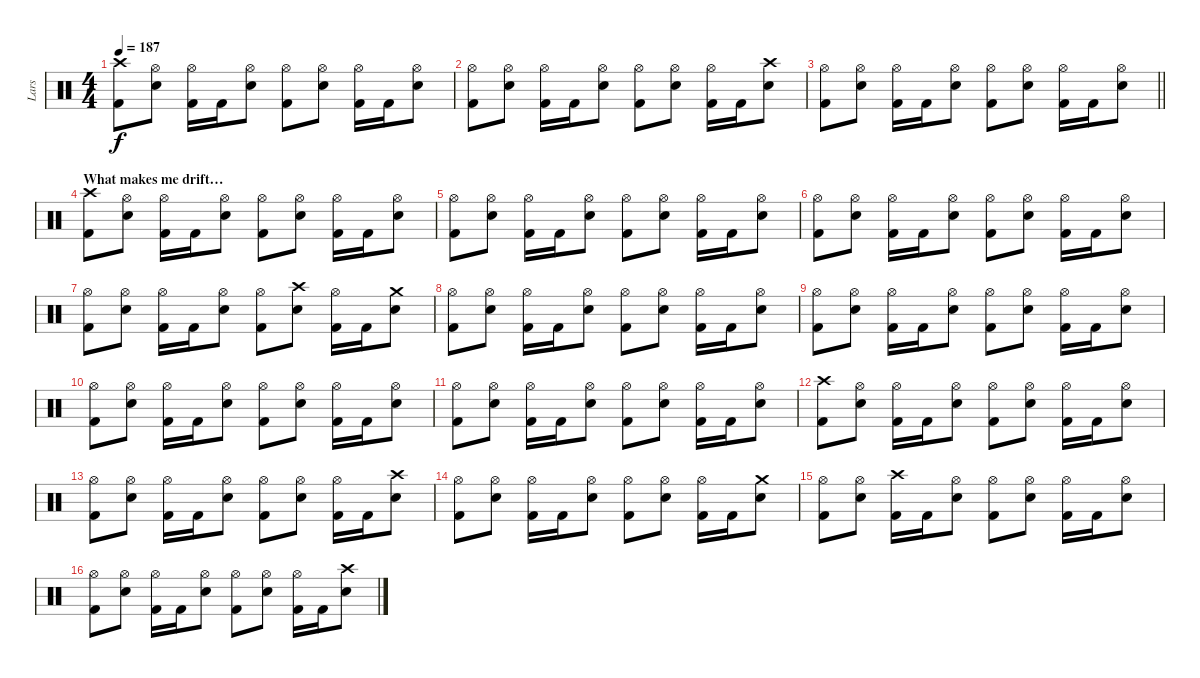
\track ("Lars" "Lars") {instrument percussion}
\staff {score}
\articulation defaults
\ts (4 4)
\tempo 187
\clef neutral
\ks c
("Crash high (hit)" "Kick (hit) 2").8{dy f} ("Hi-Hat (open)" "Snare (hit) 2").8 ("Hi-Hat (open)" "Kick (hit) 2").16 "Kick (hit) 2".16 ("Hi-Hat (open)" "Snare (hit) 2").8 ("Hi-Hat (open)" "Kick (hit) 2").8 ("Hi-Hat (open)" "Snare (hit) 2").8 ("Hi-Hat (open)" "Kick (hit) 2").16 "Kick (hit) 2".16 ("Hi-Hat (open)" "Snare (hit) 2").8 |
("Hi-Hat (open)" "Kick (hit) 2").8 ("Hi-Hat (open)" "Snare (hit) 2").8 ("Hi-Hat (open)" "Kick (hit) 2").16 "Kick (hit) 2".16 ("Hi-Hat (open)" "Snare (hit) 2").8 ("Hi-Hat (open)" "Kick (hit) 2").8 ("Hi-Hat (open)" "Snare (hit) 2").8 ("Hi-Hat (open)" "Kick (hit) 2").16 "Kick (hit) 2".16 ("Crash high (hit)" "Snare (hit) 2").8 |
\barLineRight lightlight
("Hi-Hat (open)" "Kick (hit) 2").8 ("Hi-Hat (open)" "Snare (hit) 2").8 ("Hi-Hat (open)" "Kick (hit) 2").16 "Kick (hit) 2".16 ("Hi-Hat (open)" "Snare (hit) 2").8 ("Hi-Hat (open)" "Kick (hit) 2").8 ("Hi-Hat (open)" "Snare (hit) 2").8 ("Hi-Hat (open)" "Kick (hit) 2").16 "Kick (hit) 2".16 ("Hi-Hat (open)" "Snare (hit) 2").8 |
\section ("" "What makes me drift…")
("Crash high (hit)" "Kick (hit) 2").8 ("Hi-Hat (open)" "Snare (hit) 2").8 ("Hi-Hat (open)" "Kick (hit) 2").16 "Kick (hit) 2".16 ("Hi-Hat (open)" "Snare (hit) 2").8 ("Hi-Hat (open)" "Kick (hit) 2").8 ("Hi-Hat (open)" "Snare (hit) 2").8 ("Hi-Hat (open)" "Kick (hit) 2").16 "Kick (hit) 2".16 ("Hi-Hat (open)" "Snare (hit) 2").8 |
("Hi-Hat (open)" "Kick (hit) 2").8 ("Hi-Hat (open)" "Snare (hit) 2").8 ("Hi-Hat (open)" "Kick (hit) 2").16 "Kick (hit) 2".16 ("Hi-Hat (open)" "Snare (hit) 2").8 ("Hi-Hat (open)" "Kick (hit) 2").8 ("Hi-Hat (open)" "Snare (hit) 2").8 ("Hi-Hat (open)" "Kick (hit) 2").16 "Kick (hit) 2".16 ("Hi-Hat (open)" "Snare (hit) 2").8 |
("Hi-Hat (open)" "Kick (hit) 2").8 ("Hi-Hat (open)" "Snare (hit) 2").8 ("Hi-Hat (open)" "Kick (hit) 2").16 "Kick (hit) 2".16 ("Hi-Hat (open)" "Snare (hit) 2").8 ("Hi-Hat (open)" "Kick (hit) 2").8 ("Hi-Hat (open)" "Snare (hit) 2").8 ("Hi-Hat (open)" "Kick (hit) 2").16 "Kick (hit) 2".16 ("Hi-Hat (open)" "Snare (hit) 2").8 |
("Hi-Hat (open)" "Kick (hit) 2").8 ("Hi-Hat (open)" "Snare (hit) 2").8 ("Hi-Hat (open)" "Kick (hit) 2").16 "Kick (hit) 2".16 ("Hi-Hat (open)" "Snare (hit) 2").8 ("Hi-Hat (open)" "Kick (hit) 2").8 ("Crash high (hit)" "Snare (hit) 2").8 ("Hi-Hat (open)" "Kick (hit) 2").16 "Kick (hit) 2".16 ("Crash medium (hit)" "Snare (hit) 2").8 |
("Hi-Hat (open)" "Kick (hit) 2").8 ("Hi-Hat (open)" "Snare (hit) 2").8 ("Hi-Hat (open)" "Kick (hit) 2").16 "Kick (hit) 2".16 ("Hi-Hat (open)" "Snare (hit) 2").8 ("Hi-Hat (open)" "Kick (hit) 2").8 ("Hi-Hat (open)" "Snare (hit) 2").8 ("Hi-Hat (open)" "Kick (hit) 2").16 "Kick (hit) 2".16 ("Hi-Hat (open)" "Snare (hit) 2").8 |
("Hi-Hat (open)" "Kick (hit) 2").8 ("Hi-Hat (open)" "Snare (hit) 2").8 ("Hi-Hat (open)" "Kick (hit) 2").16 "Kick (hit) 2".16 ("Hi-Hat (open)" "Snare (hit) 2").8 ("Hi-Hat (open)" "Kick (hit) 2").8 ("Hi-Hat (open)" "Snare (hit) 2").8 ("Hi-Hat (open)" "Kick (hit) 2").16 "Kick (hit) 2".16 ("Hi-Hat (open)" "Snare (hit) 2").8 |
("Hi-Hat (open)" "Kick (hit) 2").8 ("Hi-Hat (open)" "Snare (hit) 2").8 ("Hi-Hat (open)" "Kick (hit) 2").16 "Kick (hit) 2".16 ("Hi-Hat (open)" "Snare (hit) 2").8 ("Hi-Hat (open)" "Kick (hit) 2").8 ("Hi-Hat (open)" "Snare (hit) 2").8 ("Hi-Hat (open)" "Kick (hit) 2").16 "Kick (hit) 2".16 ("Hi-Hat (open)" "Snare (hit) 2").8 |
("Hi-Hat (open)" "Kick (hit) 2").8 ("Hi-Hat (open)" "Snare (hit) 2").8 ("Hi-Hat (open)" "Kick (hit) 2").16 "Kick (hit) 2".16 ("Hi-Hat (open)" "Snare (hit) 2").8 ("Hi-Hat (open)" "Kick (hit) 2").8 ("Hi-Hat (open)" "Snare (hit) 2").8 ("Hi-Hat (open)" "Kick (hit) 2").16 "Kick (hit) 2".16 ("Hi-Hat (open)" "Snare (hit) 2").8 |
("Crash high (hit)" "Kick (hit) 2").8 ("Hi-Hat (open)" "Snare (hit) 2").8 ("Hi-Hat (open)" "Kick (hit) 2").16 "Kick (hit) 2".16 ("Hi-Hat (open)" "Snare (hit) 2").8 ("Hi-Hat (open)" "Kick (hit) 2").8 ("Hi-Hat (open)" "Snare (hit) 2").8 ("Hi-Hat (open)" "Kick (hit) 2").16 "Kick (hit) 2".16 ("Hi-Hat (open)" "Snare (hit) 2").8 |
("Hi-Hat (open)" "Kick (hit) 2").8 ("Hi-Hat (open)" "Snare (hit) 2").8 ("Hi-Hat (open)" "Kick (hit) 2").16 "Kick (hit) 2".16 ("Hi-Hat (open)" "Snare (hit) 2").8 ("Hi-Hat (open)" "Kick (hit) 2").8 ("Hi-Hat (open)" "Snare (hit) 2").8 ("Hi-Hat (open)" "Kick (hit) 2").16 "Kick (hit) 2".16 ("Crash high (hit)" "Snare (hit) 2").8 |
("Hi-Hat (open)" "Kick (hit) 2").8 ("Hi-Hat (open)" "Snare (hit) 2").8 ("Hi-Hat (open)" "Kick (hit) 2").16 "Kick (hit) 2".16 ("Hi-Hat (open)" "Snare (hit) 2").8 ("Hi-Hat (open)" "Kick (hit) 2").8 ("Hi-Hat (open)" "Snare (hit) 2").8 ("Hi-Hat (open)" "Kick (hit) 2").16 "Kick (hit) 2".16 ("Crash medium (hit)" "Snare (hit) 2").8 |
("Hi-Hat (open)" "Kick (hit) 2").8 ("Hi-Hat (open)" "Snare (hit) 2").8 ("Crash high (hit)" "Kick (hit) 2").16 "Kick (hit) 2".16 ("Hi-Hat (open)" "Snare (hit) 2").8 ("Hi-Hat (open)" "Kick (hit) 2").8 ("Hi-Hat (open)" "Snare (hit) 2").8 ("Hi-Hat (open)" "Kick (hit) 2").16 "Kick (hit) 2".16 ("Hi-Hat (open)" "Snare (hit) 2").8 |
("Hi-Hat (open)" "Kick (hit) 2").8 ("Hi-Hat (open)" "Snare (hit) 2").8 ("Hi-Hat (open)" "Kick (hit) 2").16 "Kick (hit) 2".16 ("Hi-Hat (open)" "Snare (hit) 2").8 ("Hi-Hat (open)" "Kick (hit) 2").8 ("Hi-Hat (open)" "Snare (hit) 2").8 ("Hi-Hat (open)" "Kick (hit) 2").16 "Kick (hit) 2".16 ("Crash high (hit)" "Snare (hit) 2").8
